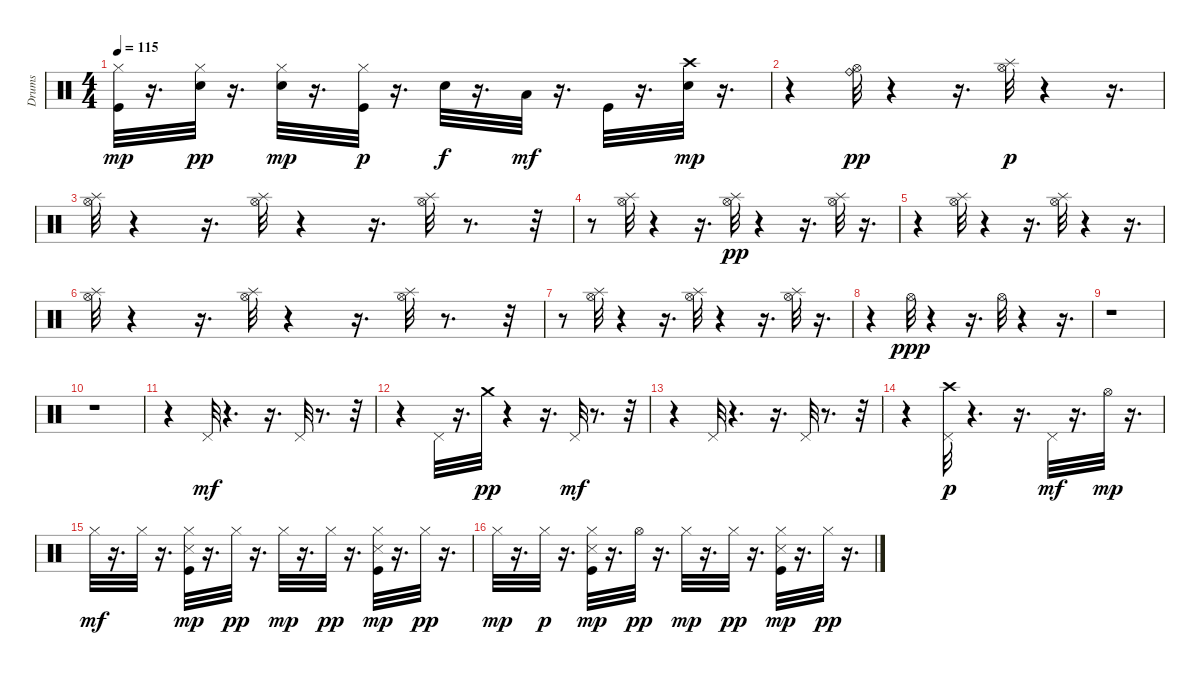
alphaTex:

\track ("Drums" "Drums") {instrument percussion}
\staff {score}
\articulation defaults
\ts (4 4)
\tempo 115
\clef neutral
\ks c
("Kick (hit)" "Hi-Hat (closed)").32{dy mp} r.16{d} ("Electric Snare (hit)" "Hi-Hat (closed)").32{dy pp} r.16{d} ("Electric Snare (hit)" "Hi-Hat (closed)").32{dy mp} r.16{d} ("Kick (hit)" "Hi-Hat (closed)").32{dy p} r.16{d} "Electric Snare (hit)".32{dy f} r.16{d} "Low Tom (hit)".32{dy mf} r.16{d} "Kick (hit)".32 r.16{d} ("Electric Snare (hit)" "Crash high (hit)").32{dy mp} r.16{d} |
r.4 ("Hi-Hat (open)" "Ride (bell)").32{dy pp} r.4 r.16{d} ("Hi-Hat (open)" "Splash (hit)").32{dy p} r.4 r.16{d} |
("Hi-Hat (open)" "Splash (hit)").32 r.4 r.16{d} ("Hi-Hat (open)" "Splash (hit)").32 r.4 r.16{d} ("Hi-Hat (open)" "Splash (hit)").32 r.8{d} r.32 |
r.8 ("Hi-Hat (open)" "Splash (hit)").32 r.4 r.16{d} ("Hi-Hat (open)" "Splash (hit)").32{dy pp} r.4 r.16{d} ("Hi-Hat (open)" "Splash (hit)").32 r.16{d} |
r.4 ("Hi-Hat (open)" "Splash (hit)").32 r.4 r.16{d} ("Hi-Hat (open)" "Splash (hit)").32 r.4 r.16{d} |
("Hi-Hat (open)" "Splash (hit)").32 r.4 r.16{d} ("Hi-Hat (open)" "Splash (hit)").32 r.4 r.16{d} ("Hi-Hat (open)" "Splash (hit)").32 r.8{d} r.32 |
r.8 ("Hi-Hat (open)" "Splash (hit)").32 r.4 r.16{d} ("Hi-Hat (open)" "Splash (hit)").32 r.4 r.16{d} ("Hi-Hat (open)" "Splash (hit)").32 r.16{d} |
r.4 "Hi-Hat (open)".32{dy ppp} r.4 r.16{d} "Hi-Hat (open)".32 r.4 r.16{d} |
r.1 |
r.1 |
r.4 "Pedal Hi-Hat (hit)".32{dy mf} r.4{d} r.16{d} "Pedal Hi-Hat (hit)".32 r.8{d} r.32 |
r.4 "Pedal Hi-Hat (hit)".32 r.16{d} "Crash medium (hit)".32{dy pp} r.4 r.16{d} "Pedal Hi-Hat (hit)".32{dy mf} r.8{d} r.32 |
r.4 "Pedal Hi-Hat (hit)".32 r.4{d} r.16{d} "Pedal Hi-Hat (hit)".32 r.8{d} r.32 |
r.4 ("Pedal Hi-Hat (hit)" "Crash high (hit)").32{dy p} r.4{d} r.16{d} "Pedal Hi-Hat (hit)".32{dy mf} r.16{d} "Hi-Hat (open)".32{dy mp} r.16{d} |
"Hi-Hat (closed)".32{dy mf} r.16{d} "Hi-Hat (closed)".32 r.16{d} ("Kick (hit)" "Snare (side stick) 3" "Hi-Hat (closed)").32{dy mp} r.16{d} "Hi-Hat (closed)".32{dy pp} r.16{d} "Hi-Hat (closed)".32{dy mp} r.16{d} "Hi-Hat (closed)".32{dy pp} r.16{d} ("Kick (hit)" "Snare (side stick) 3" "Hi-Hat (closed)").32{dy mp} r.16{d} "Hi-Hat (closed)".32{dy pp} r.16{d} |
"Hi-Hat (closed)".32{dy mp} r.16{d} "Hi-Hat (closed)".32{dy p} r.16{d} ("Kick (hit)" "Snare (side stick) 3" "Hi-Hat (closed)").32{dy mp} r.16{d} "Hi-Hat (open)".32{dy pp} r.16{d} "Hi-Hat (closed)".32{dy mp} r.16{d} "Hi-Hat (closed)".32{dy pp} r.16{d} ("Kick (hit)" "Snare (side stick) 3" "Hi-Hat (closed)").32{dy mp} r.16{d} "Hi-Hat (closed)".32{dy pp} r.16{d}
